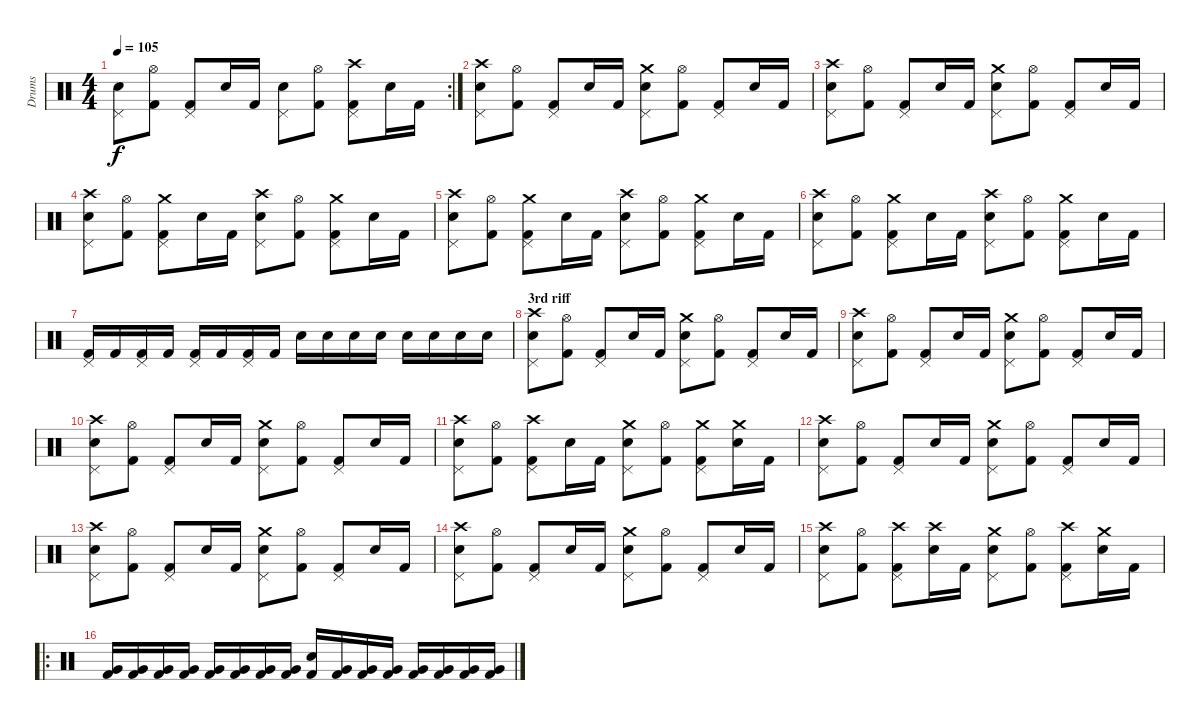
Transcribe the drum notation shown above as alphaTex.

\track ("Drums" "Drums") {instrument percussion}
\staff {score}
\articulation defaults
\rc 2
\ts (4 4)
\tempo 105
\clef neutral
\ks c
("Pedal Hi-Hat (hit)" "Electric Snare (hit)").8{dy f} ("Hi-Hat (open)" "Kick (hit) 2").8 ("Pedal Hi-Hat (hit)" "Kick (hit) 2").8 "Electric Snare (hit)".16 "Kick (hit) 2".16 ("Pedal Hi-Hat (hit)" "Electric Snare (hit)").8 ("Hi-Hat (open)" "Kick (hit) 2").8 ("Crash high (hit)" "Pedal Hi-Hat (hit)" "Kick (hit) 2").8 "Electric Snare (hit)".16 "Kick (hit) 2".16 |
("Crash high (hit)" "Pedal Hi-Hat (hit)" "Electric Snare (hit)").8 ("Hi-Hat (open)" "Kick (hit) 2").8 ("Pedal Hi-Hat (hit)" "Kick (hit) 2").8 "Electric Snare (hit)".16 "Kick (hit) 2".16 ("Crash medium (hit)" "Pedal Hi-Hat (hit)" "Electric Snare (hit)").8 ("Hi-Hat (open)" "Kick (hit) 2").8 ("Pedal Hi-Hat (hit)" "Kick (hit) 2").8 "Electric Snare (hit)".16 "Kick (hit) 2".16 |
("Crash high (hit)" "Pedal Hi-Hat (hit)" "Electric Snare (hit)").8 ("Hi-Hat (open)" "Kick (hit) 2").8 ("Pedal Hi-Hat (hit)" "Kick (hit) 2").8 "Electric Snare (hit)".16 "Kick (hit) 2".16 ("Crash medium (hit)" "Pedal Hi-Hat (hit)" "Electric Snare (hit)").8 ("Hi-Hat (open)" "Kick (hit) 2").8 ("Pedal Hi-Hat (hit)" "Kick (hit) 2").8 "Electric Snare (hit)".16 "Kick (hit) 2".16 |
("Crash high (hit)" "Pedal Hi-Hat (hit)" "Electric Snare (hit)").8 ("Hi-Hat (open)" "Kick (hit) 2").8 ("Crash medium (hit)" "Pedal Hi-Hat (hit)" "Kick (hit) 2").8 "Electric Snare (hit)".16 "Kick (hit) 2".16 ("Crash high (hit)" "Pedal Hi-Hat (hit)" "Electric Snare (hit)").8 ("Hi-Hat (open)" "Kick (hit) 2").8 ("Crash medium (hit)" "Pedal Hi-Hat (hit)" "Kick (hit) 2").8 "Electric Snare (hit)".16 "Kick (hit) 2".16 |
("Crash high (hit)" "Pedal Hi-Hat (hit)" "Electric Snare (hit)").8 ("Hi-Hat (open)" "Kick (hit) 2").8 ("Crash medium (hit)" "Pedal Hi-Hat (hit)" "Kick (hit) 2").8 "Electric Snare (hit)".16 "Kick (hit) 2".16 ("Crash high (hit)" "Pedal Hi-Hat (hit)" "Electric Snare (hit)").8 ("Hi-Hat (open)" "Kick (hit) 2").8 ("Crash medium (hit)" "Pedal Hi-Hat (hit)" "Kick (hit) 2").8 "Electric Snare (hit)".16 "Kick (hit) 2".16 |
("Crash high (hit)" "Pedal Hi-Hat (hit)" "Electric Snare (hit)").8 ("Hi-Hat (open)" "Kick (hit) 2").8 ("Crash medium (hit)" "Pedal Hi-Hat (hit)" "Kick (hit) 2").8 "Electric Snare (hit)".16 "Kick (hit) 2".16 ("Crash high (hit)" "Pedal Hi-Hat (hit)" "Electric Snare (hit)").8 ("Hi-Hat (open)" "Kick (hit) 2").8 ("Crash medium (hit)" "Pedal Hi-Hat (hit)" "Kick (hit) 2").8 "Electric Snare (hit)".16 "Kick (hit) 2".16 |
("Pedal Hi-Hat (hit)" "Kick (hit) 2").16 "Kick (hit) 2".16 ("Pedal Hi-Hat (hit)" "Kick (hit) 2").16 "Kick (hit) 2".16 ("Pedal Hi-Hat (hit)" "Kick (hit) 2").16 "Kick (hit) 2".16 ("Pedal Hi-Hat (hit)" "Kick (hit) 2").16 "Kick (hit) 2".16 "Electric Snare (hit)".16 "Electric Snare (hit)".16 "Electric Snare (hit)".16 "Electric Snare (hit)".16 "Electric Snare (hit)".16 "Electric Snare (hit)".16 "Electric Snare (hit)".16 "Electric Snare (hit)".16 |
\section ("" "3rd riff")
("Crash high (hit)" "Pedal Hi-Hat (hit)" "Electric Snare (hit)").8 ("Hi-Hat (open)" "Kick (hit) 2").8 ("Pedal Hi-Hat (hit)" "Kick (hit) 2").8 "Electric Snare (hit)".16 "Kick (hit) 2".16 ("Crash medium (hit)" "Pedal Hi-Hat (hit)" "Electric Snare (hit)").8 ("Hi-Hat (open)" "Kick (hit) 2").8 ("Pedal Hi-Hat (hit)" "Kick (hit) 2").8 "Electric Snare (hit)".16 "Kick (hit) 2".16 |
("Crash high (hit)" "Pedal Hi-Hat (hit)" "Electric Snare (hit)").8 ("Hi-Hat (open)" "Kick (hit) 2").8 ("Pedal Hi-Hat (hit)" "Kick (hit) 2").8 "Electric Snare (hit)".16 "Kick (hit) 2".16 ("Crash medium (hit)" "Pedal Hi-Hat (hit)" "Electric Snare (hit)").8 ("Hi-Hat (open)" "Kick (hit) 2").8 ("Pedal Hi-Hat (hit)" "Kick (hit) 2").8 "Electric Snare (hit)".16 "Kick (hit) 2".16 |
("Crash high (hit)" "Pedal Hi-Hat (hit)" "Electric Snare (hit)").8 ("Hi-Hat (open)" "Kick (hit) 2").8 ("Pedal Hi-Hat (hit)" "Kick (hit) 2").8 "Electric Snare (hit)".16 "Kick (hit) 2".16 ("Crash medium (hit)" "Pedal Hi-Hat (hit)" "Electric Snare (hit)").8 ("Hi-Hat (open)" "Kick (hit) 2").8 ("Pedal Hi-Hat (hit)" "Kick (hit) 2").8 "Electric Snare (hit)".16 "Kick (hit) 2".16 |
("Crash high (hit)" "Pedal Hi-Hat (hit)" "Electric Snare (hit)").8 ("Hi-Hat (open)" "Kick (hit) 2").8 ("Crash high (hit)" "Pedal Hi-Hat (hit)" "Kick (hit) 2").8 "Electric Snare (hit)".16 "Kick (hit) 2".16 ("Crash medium (hit)" "Pedal Hi-Hat (hit)" "Electric Snare (hit)").8 ("Hi-Hat (open)" "Kick (hit) 2").8 ("Crash medium (hit)" "Pedal Hi-Hat (hit)" "Kick (hit) 2").8 ("Crash medium (hit)" "Electric Snare (hit)").16 "Kick (hit) 2".16 |
("Crash high (hit)" "Pedal Hi-Hat (hit)" "Electric Snare (hit)").8 ("Hi-Hat (open)" "Kick (hit) 2").8 ("Pedal Hi-Hat (hit)" "Kick (hit) 2").8 "Electric Snare (hit)".16 "Kick (hit) 2".16 ("Crash medium (hit)" "Pedal Hi-Hat (hit)" "Electric Snare (hit)").8 ("Hi-Hat (open)" "Kick (hit) 2").8 ("Pedal Hi-Hat (hit)" "Kick (hit) 2").8 "Electric Snare (hit)".16 "Kick (hit) 2".16 |
("Crash high (hit)" "Pedal Hi-Hat (hit)" "Electric Snare (hit)").8 ("Hi-Hat (open)" "Kick (hit) 2").8 ("Pedal Hi-Hat (hit)" "Kick (hit) 2").8 "Electric Snare (hit)".16 "Kick (hit) 2".16 ("Crash medium (hit)" "Pedal Hi-Hat (hit)" "Electric Snare (hit)").8 ("Hi-Hat (open)" "Kick (hit) 2").8 ("Pedal Hi-Hat (hit)" "Kick (hit) 2").8 "Electric Snare (hit)".16 "Kick (hit) 2".16 |
("Crash high (hit)" "Pedal Hi-Hat (hit)" "Electric Snare (hit)").8 ("Hi-Hat (open)" "Kick (hit) 2").8 ("Pedal Hi-Hat (hit)" "Kick (hit) 2").8 "Electric Snare (hit)".16 "Kick (hit) 2".16 ("Crash medium (hit)" "Pedal Hi-Hat (hit)" "Electric Snare (hit)").8 ("Hi-Hat (open)" "Kick (hit) 2").8 ("Pedal Hi-Hat (hit)" "Kick (hit) 2").8 "Electric Snare (hit)".16 "Kick (hit) 2".16 |
("Crash high (hit)" "Pedal Hi-Hat (hit)" "Electric Snare (hit)").8 ("Hi-Hat (open)" "Kick (hit) 2").8 ("Crash high (hit)" "Pedal Hi-Hat (hit)" "Kick (hit) 2").8 ("Crash high (hit)" "Electric Snare (hit)").16 "Kick (hit) 2".16 ("Crash medium (hit)" "Pedal Hi-Hat (hit)" "Electric Snare (hit)").8 ("Hi-Hat (open)" "Kick (hit) 2").8 ("Crash high (hit)" "Pedal Hi-Hat (hit)" "Kick (hit) 2").8 ("Crash medium (hit)" "Electric Snare (hit)").16 "Kick (hit) 2".16 |
\ro
("Very Low Tom (hit)" "Kick (hit) 2").16 ("Very Low Tom (hit)" "Kick (hit) 2").16 ("Very Low Tom (hit)" "Kick (hit) 2").16 ("Very Low Tom (hit)" "Kick (hit) 2").16 ("Very Low Tom (hit)" "Kick (hit) 2").16 ("Very Low Tom (hit)" "Kick (hit) 2").16 ("Very Low Tom (hit)" "Kick (hit) 2").16 ("Very Low Tom (hit)" "Kick (hit) 2").16 ("Electric Snare (hit)" "Kick (hit) 2").16 ("Very Low Tom (hit)" "Kick (hit) 2").16 ("Very Low Tom (hit)" "Kick (hit) 2").16 ("Very Low Tom (hit)" "Kick (hit) 2").16 ("Very Low Tom (hit)" "Kick (hit) 2").16 ("Very Low Tom (hit)" "Kick (hit) 2").16 ("Very Low Tom (hit)" "Kick (hit) 2").16 ("Very Low Tom (hit)" "Kick (hit) 2").16
